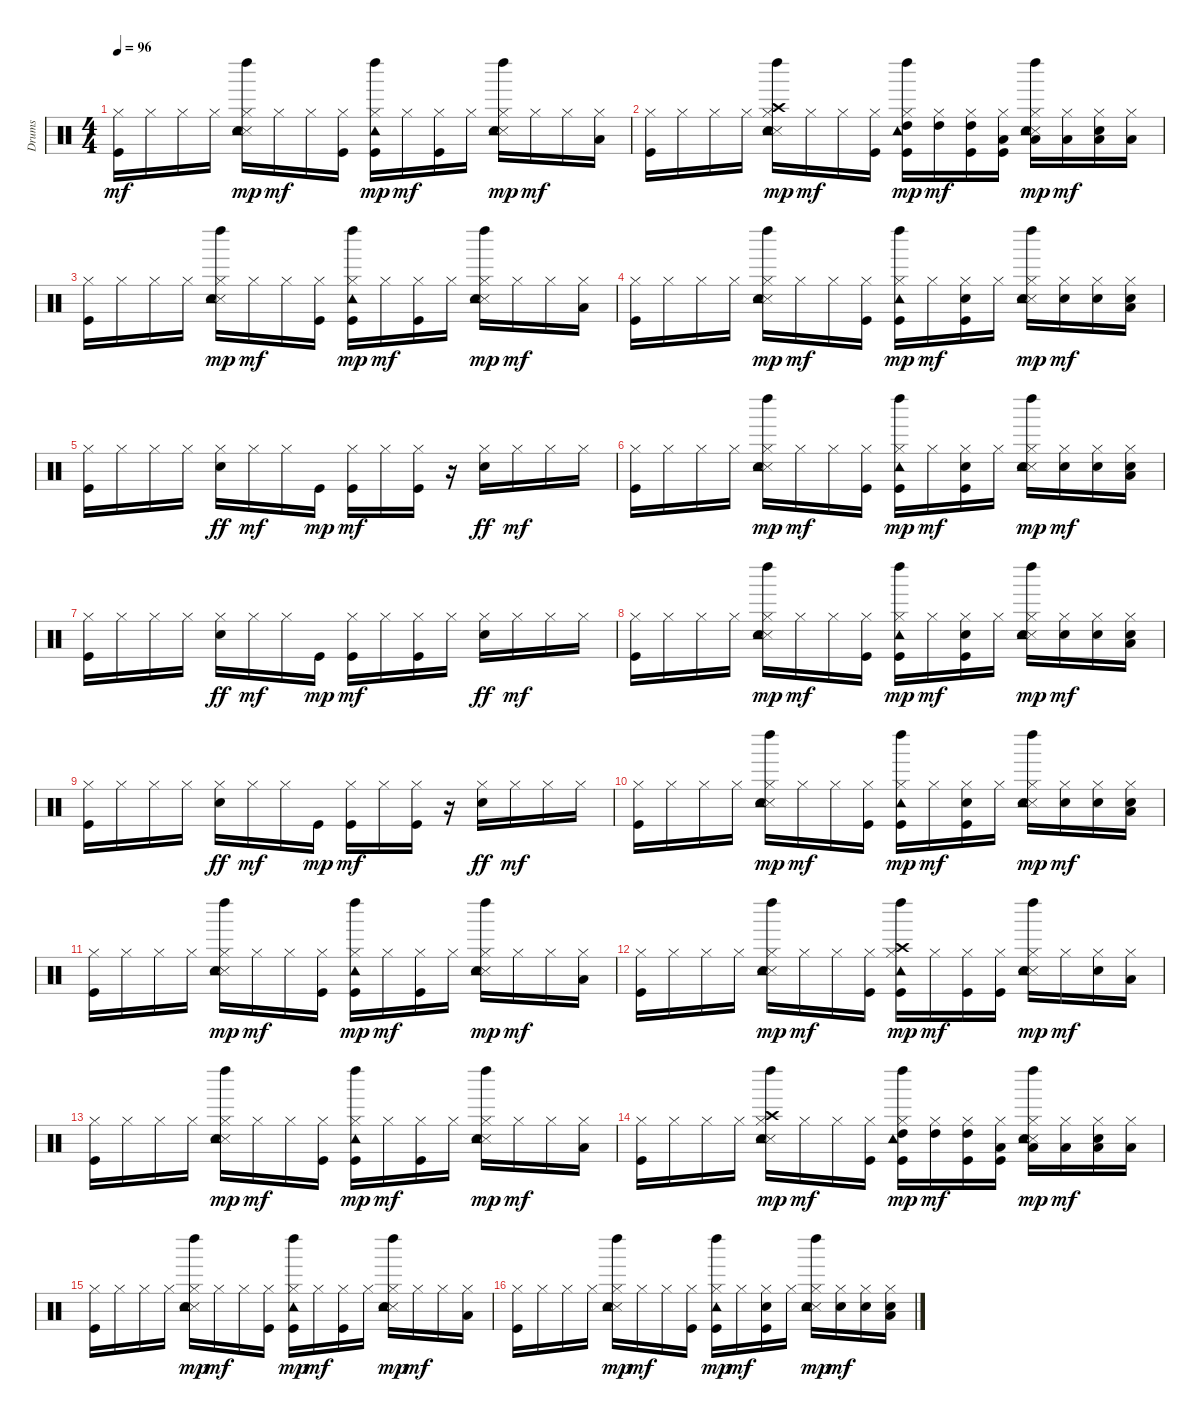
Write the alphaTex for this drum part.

\track ("Drums" "Drums") {instrument percussion}
\staff {score}
\articulation defaults
\ts (4 4)
\tempo 96
\clef neutral
\ks c
("Kick (hit)" "Hi-Hat (closed)").16{dy mf} "Hi-Hat (closed)".16 "Hi-Hat (closed)".16 "Hi-Hat (closed)".16 ("Snare (side stick) 3" "Snare (hit) 2" "Hi-Hat (closed)" "Tambourine (hit)" "Left Maraca (hit)").16{dy mp} "Hi-Hat (closed)".16{dy mf} "Hi-Hat (closed)".16 ("Kick (hit)" "Hi-Hat (closed)").16 ("Kick (hit)" "Hi-Hat (closed)" "Tambourine (hit)" "Left Maraca (hit)").16{dy mp} "Hi-Hat (closed)".16{dy mf} ("Kick (hit)" "Hi-Hat (closed)").16 "Hi-Hat (closed)".16 ("Snare (side stick) 3" "Snare (hit) 2" "Hi-Hat (closed)" "Tambourine (hit)" "Left Maraca (hit)").16{dy mp} "Hi-Hat (closed)".16{dy mf} "Hi-Hat (closed)".16 ("Low Floor Tom (hit)" "Hi-Hat (closed)").16 |
("Kick (hit)" "Hi-Hat (closed)").16 "Hi-Hat (closed)".16 "Hi-Hat (closed)".16 "Hi-Hat (closed)".16 ("Snare (side stick) 3" "Snare (hit) 2" "Hi-Hat (closed)" "Crash high (hit)" "Tambourine (hit)" "Left Maraca (hit)").16{dy mp} "Hi-Hat (closed)".16{dy mf} "Hi-Hat (closed)".16 ("Kick (hit)" "Hi-Hat (closed)").16 ("Kick (hit)" "Hi-Hat (closed)" "High Tom (hit)" "Tambourine (hit)" "Left Maraca (hit)").16{dy mp} ("Hi-Hat (closed)" "High Tom (hit)").16{dy mf} ("Kick (hit)" "Hi-Hat (closed)" "High Tom (hit)").16 ("Kick (hit)" "Hi-Hat (closed)" "Low Tom (hit)").16 ("Snare (side stick) 3" "Snare (hit) 2" "Hi-Hat (closed)" "Low Tom (hit)" "Tambourine (hit)" "Left Maraca (hit)").16{dy mp} ("Hi-Hat (closed)" "Low Tom (hit)").16{dy mf} ("Snare (hit) 2" "Low Floor Tom (hit)" "Hi-Hat (closed)").16 ("Low Floor Tom (hit)" "Hi-Hat (closed)").16 |
("Kick (hit)" "Hi-Hat (closed)").16 "Hi-Hat (closed)".16 "Hi-Hat (closed)".16 "Hi-Hat (closed)".16 ("Snare (side stick) 3" "Snare (hit) 2" "Hi-Hat (closed)" "Tambourine (hit)" "Left Maraca (hit)").16{dy mp} "Hi-Hat (closed)".16{dy mf} "Hi-Hat (closed)".16 ("Kick (hit)" "Hi-Hat (closed)").16 ("Kick (hit)" "Hi-Hat (closed)" "Tambourine (hit)" "Left Maraca (hit)").16{dy mp} "Hi-Hat (closed)".16{dy mf} ("Kick (hit)" "Hi-Hat (closed)").16 "Hi-Hat (closed)".16 ("Snare (side stick) 3" "Snare (hit) 2" "Hi-Hat (closed)" "Tambourine (hit)" "Left Maraca (hit)").16{dy mp} "Hi-Hat (closed)".16{dy mf} "Hi-Hat (closed)".16 ("Low Floor Tom (hit)" "Hi-Hat (closed)").16 |
("Kick (hit)" "Hi-Hat (closed)").16 "Hi-Hat (closed)".16 "Hi-Hat (closed)".16 "Hi-Hat (closed)".16 ("Snare (side stick) 3" "Snare (hit) 2" "Hi-Hat (closed)" "Tambourine (hit)" "Left Maraca (hit)").16{dy mp} "Hi-Hat (closed)".16{dy mf} "Hi-Hat (closed)".16 ("Kick (hit)" "Hi-Hat (closed)").16 ("Kick (hit)" "Hi-Hat (closed)" "Tambourine (hit)" "Left Maraca (hit)").16{dy mp} "Hi-Hat (closed)".16{dy mf} ("Kick (hit)" "Snare (hit) 2" "Hi-Hat (closed)").16 "Hi-Hat (closed)".16 ("Snare (side stick) 3" "Snare (hit) 2" "Hi-Hat (closed)" "Tambourine (hit)" "Left Maraca (hit)").16{dy mp} ("Snare (hit) 2" "Hi-Hat (closed)").16{dy mf} ("Snare (hit) 2" "Hi-Hat (closed)").16 ("Snare (hit) 2" "Low Floor Tom (hit)" "Hi-Hat (closed)").16 |
("Kick (hit)" "Hi-Hat (closed)").16 "Hi-Hat (closed)".16 "Hi-Hat (closed)".16 "Hi-Hat (closed)".16 ("Snare (hit) 2" "Hi-Hat (closed)").16{dy ff} "Hi-Hat (closed)".16{dy mf} "Hi-Hat (closed)".16 "Kick (hit)".16{dy mp} ("Kick (hit)" "Hi-Hat (closed)").16{dy mf} "Hi-Hat (closed)".16 ("Kick (hit)" "Hi-Hat (closed)").16 r.16 ("Snare (hit) 2" "Hi-Hat (closed)").16{dy ff} "Hi-Hat (closed)".16{dy mf} "Hi-Hat (closed)".16 "Hi-Hat (closed)".16 |
("Kick (hit)" "Hi-Hat (closed)").16 "Hi-Hat (closed)".16 "Hi-Hat (closed)".16 "Hi-Hat (closed)".16 ("Snare (side stick) 3" "Snare (hit) 2" "Hi-Hat (closed)" "Tambourine (hit)" "Left Maraca (hit)").16{dy mp} "Hi-Hat (closed)".16{dy mf} "Hi-Hat (closed)".16 ("Kick (hit)" "Hi-Hat (closed)").16 ("Kick (hit)" "Hi-Hat (closed)" "Tambourine (hit)" "Left Maraca (hit)").16{dy mp} "Hi-Hat (closed)".16{dy mf} ("Kick (hit)" "Snare (hit) 2" "Hi-Hat (closed)").16 "Hi-Hat (closed)".16 ("Snare (side stick) 3" "Snare (hit) 2" "Hi-Hat (closed)" "Tambourine (hit)" "Left Maraca (hit)").16{dy mp} ("Snare (hit) 2" "Hi-Hat (closed)").16{dy mf} ("Snare (hit) 2" "Hi-Hat (closed)").16 ("Snare (hit) 2" "Low Floor Tom (hit)" "Hi-Hat (closed)").16 |
("Kick (hit)" "Hi-Hat (closed)").16 "Hi-Hat (closed)".16 "Hi-Hat (closed)".16 "Hi-Hat (closed)".16 ("Snare (hit) 2" "Hi-Hat (closed)").16{dy ff} "Hi-Hat (closed)".16{dy mf} "Hi-Hat (closed)".16 "Kick (hit)".16{dy mp} ("Kick (hit)" "Hi-Hat (closed)").16{dy mf} "Hi-Hat (closed)".16 ("Kick (hit)" "Hi-Hat (closed)").16 "Hi-Hat (closed)".16 ("Snare (hit) 2" "Hi-Hat (closed)").16{dy ff} "Hi-Hat (closed)".16{dy mf} "Hi-Hat (closed)".16 "Hi-Hat (closed)".16 |
("Kick (hit)" "Hi-Hat (closed)").16 "Hi-Hat (closed)".16 "Hi-Hat (closed)".16 "Hi-Hat (closed)".16 ("Snare (side stick) 3" "Snare (hit) 2" "Hi-Hat (closed)" "Tambourine (hit)" "Left Maraca (hit)").16{dy mp} "Hi-Hat (closed)".16{dy mf} "Hi-Hat (closed)".16 ("Kick (hit)" "Hi-Hat (closed)").16 ("Kick (hit)" "Hi-Hat (closed)" "Tambourine (hit)" "Left Maraca (hit)").16{dy mp} "Hi-Hat (closed)".16{dy mf} ("Kick (hit)" "Snare (hit) 2" "Hi-Hat (closed)").16 "Hi-Hat (closed)".16 ("Snare (side stick) 3" "Snare (hit) 2" "Hi-Hat (closed)" "Tambourine (hit)" "Left Maraca (hit)").16{dy mp} ("Snare (hit) 2" "Hi-Hat (closed)").16{dy mf} ("Snare (hit) 2" "Hi-Hat (closed)").16 ("Snare (hit) 2" "Low Floor Tom (hit)" "Hi-Hat (closed)").16 |
("Kick (hit)" "Hi-Hat (closed)").16 "Hi-Hat (closed)".16 "Hi-Hat (closed)".16 "Hi-Hat (closed)".16 ("Snare (hit) 2" "Hi-Hat (closed)").16{dy ff} "Hi-Hat (closed)".16{dy mf} "Hi-Hat (closed)".16 "Kick (hit)".16{dy mp} ("Kick (hit)" "Hi-Hat (closed)").16{dy mf} "Hi-Hat (closed)".16 ("Kick (hit)" "Hi-Hat (closed)").16 r.16 ("Snare (hit) 2" "Hi-Hat (closed)").16{dy ff} "Hi-Hat (closed)".16{dy mf} "Hi-Hat (closed)".16 "Hi-Hat (closed)".16 |
("Kick (hit)" "Hi-Hat (closed)").16 "Hi-Hat (closed)".16 "Hi-Hat (closed)".16 "Hi-Hat (closed)".16 ("Snare (side stick) 3" "Snare (hit) 2" "Hi-Hat (closed)" "Tambourine (hit)" "Left Maraca (hit)").16{dy mp} "Hi-Hat (closed)".16{dy mf} "Hi-Hat (closed)".16 ("Kick (hit)" "Hi-Hat (closed)").16 ("Kick (hit)" "Hi-Hat (closed)" "Tambourine (hit)" "Left Maraca (hit)").16{dy mp} "Hi-Hat (closed)".16{dy mf} ("Kick (hit)" "Snare (hit) 2" "Hi-Hat (closed)").16 "Hi-Hat (closed)".16 ("Snare (side stick) 3" "Snare (hit) 2" "Hi-Hat (closed)" "Tambourine (hit)" "Left Maraca (hit)").16{dy mp} ("Snare (hit) 2" "Hi-Hat (closed)").16{dy mf} ("Snare (hit) 2" "Hi-Hat (closed)").16 ("Snare (hit) 2" "Low Floor Tom (hit)" "Hi-Hat (closed)").16 |
("Kick (hit)" "Hi-Hat (closed)").16 "Hi-Hat (closed)".16 "Hi-Hat (closed)".16 "Hi-Hat (closed)".16 ("Snare (side stick) 3" "Snare (hit) 2" "Hi-Hat (closed)" "Tambourine (hit)" "Left Maraca (hit)").16{dy mp} "Hi-Hat (closed)".16{dy mf} "Hi-Hat (closed)".16 ("Kick (hit)" "Hi-Hat (closed)").16 ("Kick (hit)" "Hi-Hat (closed)" "Tambourine (hit)" "Left Maraca (hit)").16{dy mp} "Hi-Hat (closed)".16{dy mf} ("Kick (hit)" "Hi-Hat (closed)").16 "Hi-Hat (closed)".16 ("Snare (side stick) 3" "Snare (hit) 2" "Hi-Hat (closed)" "Tambourine (hit)" "Left Maraca (hit)").16{dy mp} "Hi-Hat (closed)".16{dy mf} "Hi-Hat (closed)".16 ("Low Floor Tom (hit)" "Hi-Hat (closed)").16 |
("Kick (hit)" "Hi-Hat (closed)").16 "Hi-Hat (closed)".16 "Hi-Hat (closed)".16 "Hi-Hat (closed)".16 ("Snare (side stick) 3" "Snare (hit) 2" "Hi-Hat (closed)" "Tambourine (hit)" "Left Maraca (hit)").16{dy mp} "Hi-Hat (closed)".16{dy mf} "Hi-Hat (closed)".16 ("Kick (hit)" "Hi-Hat (closed)").16 ("Kick (hit)" "Hi-Hat (closed)" "Crash high (hit)" "Tambourine (hit)" "Left Maraca (hit)").16{dy mp} "Hi-Hat (closed)".16{dy mf} ("Kick (hit)" "Hi-Hat (closed)").16 ("Kick (hit)" "Hi-Hat (closed)").16 ("Snare (side stick) 3" "Snare (hit) 2" "Hi-Hat (closed)" "Tambourine (hit)" "Left Maraca (hit)").16{dy mp} "Hi-Hat (closed)".16{dy mf} ("Snare (hit) 2" "Hi-Hat (closed)").16 ("Low Floor Tom (hit)" "Hi-Hat (closed)").16 |
("Kick (hit)" "Hi-Hat (closed)").16 "Hi-Hat (closed)".16 "Hi-Hat (closed)".16 "Hi-Hat (closed)".16 ("Snare (side stick) 3" "Snare (hit) 2" "Hi-Hat (closed)" "Tambourine (hit)" "Left Maraca (hit)").16{dy mp} "Hi-Hat (closed)".16{dy mf} "Hi-Hat (closed)".16 ("Kick (hit)" "Hi-Hat (closed)").16 ("Kick (hit)" "Hi-Hat (closed)" "Tambourine (hit)" "Left Maraca (hit)").16{dy mp} "Hi-Hat (closed)".16{dy mf} ("Kick (hit)" "Hi-Hat (closed)").16 "Hi-Hat (closed)".16 ("Snare (side stick) 3" "Snare (hit) 2" "Hi-Hat (closed)" "Tambourine (hit)" "Left Maraca (hit)").16{dy mp} "Hi-Hat (closed)".16{dy mf} "Hi-Hat (closed)".16 ("Low Floor Tom (hit)" "Hi-Hat (closed)").16 |
("Kick (hit)" "Hi-Hat (closed)").16 "Hi-Hat (closed)".16 "Hi-Hat (closed)".16 "Hi-Hat (closed)".16 ("Snare (side stick) 3" "Snare (hit) 2" "Hi-Hat (closed)" "Crash high (hit)" "Tambourine (hit)" "Left Maraca (hit)").16{dy mp} "Hi-Hat (closed)".16{dy mf} "Hi-Hat (closed)".16 ("Kick (hit)" "Hi-Hat (closed)").16 ("Kick (hit)" "Hi-Hat (closed)" "High Tom (hit)" "Tambourine (hit)" "Left Maraca (hit)").16{dy mp} ("Hi-Hat (closed)" "High Tom (hit)").16{dy mf} ("Kick (hit)" "Hi-Hat (closed)" "High Tom (hit)").16 ("Kick (hit)" "Hi-Hat (closed)" "Low Tom (hit)").16 ("Snare (side stick) 3" "Snare (hit) 2" "Hi-Hat (closed)" "Low Tom (hit)" "Tambourine (hit)" "Left Maraca (hit)").16{dy mp} ("Hi-Hat (closed)" "Low Tom (hit)").16{dy mf} ("Snare (hit) 2" "Low Floor Tom (hit)" "Hi-Hat (closed)").16 ("Low Floor Tom (hit)" "Hi-Hat (closed)").16 |
("Kick (hit)" "Hi-Hat (closed)").16 "Hi-Hat (closed)".16 "Hi-Hat (closed)".16 "Hi-Hat (closed)".16 ("Snare (side stick) 3" "Snare (hit) 2" "Hi-Hat (closed)" "Tambourine (hit)" "Left Maraca (hit)").16{dy mp} "Hi-Hat (closed)".16{dy mf} "Hi-Hat (closed)".16 ("Kick (hit)" "Hi-Hat (closed)").16 ("Kick (hit)" "Hi-Hat (closed)" "Tambourine (hit)" "Left Maraca (hit)").16{dy mp} "Hi-Hat (closed)".16{dy mf} ("Kick (hit)" "Hi-Hat (closed)").16 "Hi-Hat (closed)".16 ("Snare (side stick) 3" "Snare (hit) 2" "Hi-Hat (closed)" "Tambourine (hit)" "Left Maraca (hit)").16{dy mp} "Hi-Hat (closed)".16{dy mf} "Hi-Hat (closed)".16 ("Low Floor Tom (hit)" "Hi-Hat (closed)").16 |
("Kick (hit)" "Hi-Hat (closed)").16 "Hi-Hat (closed)".16 "Hi-Hat (closed)".16 "Hi-Hat (closed)".16 ("Snare (side stick) 3" "Snare (hit) 2" "Hi-Hat (closed)" "Tambourine (hit)" "Left Maraca (hit)").16{dy mp} "Hi-Hat (closed)".16{dy mf} "Hi-Hat (closed)".16 ("Kick (hit)" "Hi-Hat (closed)").16 ("Kick (hit)" "Hi-Hat (closed)" "Tambourine (hit)" "Left Maraca (hit)").16{dy mp} "Hi-Hat (closed)".16{dy mf} ("Kick (hit)" "Snare (hit) 2" "Hi-Hat (closed)").16 "Hi-Hat (closed)".16 ("Snare (side stick) 3" "Snare (hit) 2" "Hi-Hat (closed)" "Tambourine (hit)" "Left Maraca (hit)").16{dy mp} ("Snare (hit) 2" "Hi-Hat (closed)").16{dy mf} ("Snare (hit) 2" "Hi-Hat (closed)").16 ("Snare (hit) 2" "Low Floor Tom (hit)" "Hi-Hat (closed)").16
